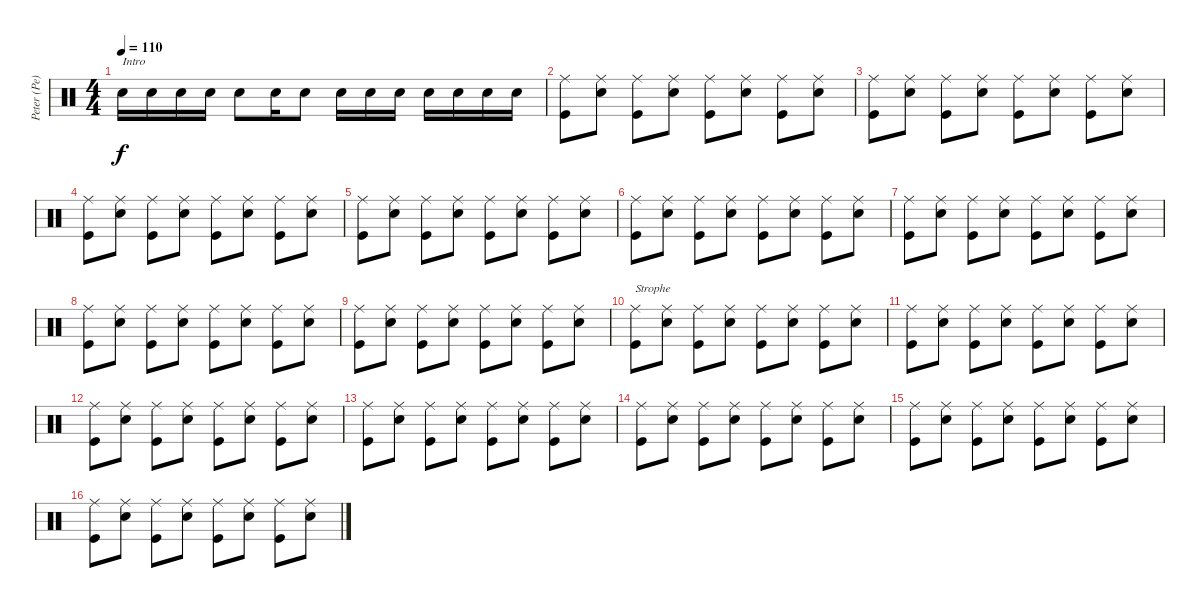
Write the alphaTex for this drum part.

\track ("Peter (Pe) Schorowsky" "Peter (Pe)") {instrument percussion}
\staff {score}
\articulation defaults
\ts (4 4)
\tempo 110
\clef neutral
\ks c "Snare (hit) 2".16{txt "Intro" dy f} "Snare (hit) 2".16 "Snare (hit) 2".16 "Snare (hit) 2".16 "Snare (hit) 2".8 "Snare (hit) 2".16 "Snare (hit) 2".8 "Snare (hit) 2".16 "Snare (hit) 2".16 "Snare (hit) 2".16 "Snare (hit) 2".16 "Snare (hit) 2".16 "Snare (hit) 2".16 "Snare (hit) 2".16
|
("Ride (middle)" "Kick (hit)").8 ("Ride (middle)" "Snare (hit) 2").8 ("Ride (middle)" "Kick (hit)").8 ("Ride (middle)" "Snare (hit) 2").8 ("Ride (middle)" "Kick (hit)").8 ("Ride (middle)" "Snare (hit) 2").8 ("Ride (middle)" "Kick (hit)").8 ("Ride (middle)" "Snare (hit) 2").8 |
("Ride (middle)" "Kick (hit)").8 ("Ride (middle)" "Snare (hit) 2").8 ("Ride (middle)" "Kick (hit)").8 ("Ride (middle)" "Snare (hit) 2").8 ("Ride (middle)" "Kick (hit)").8 ("Ride (middle)" "Snare (hit) 2").8 ("Ride (middle)" "Kick (hit)").8 ("Ride (middle)" "Snare (hit) 2").8 |
("Ride (middle)" "Kick (hit)").8 ("Ride (middle)" "Snare (hit) 2").8 ("Ride (middle)" "Kick (hit)").8 ("Ride (middle)" "Snare (hit) 2").8 ("Ride (middle)" "Kick (hit)").8 ("Ride (middle)" "Snare (hit) 2").8 ("Ride (middle)" "Kick (hit)").8 ("Ride (middle)" "Snare (hit) 2").8 |
("Ride (middle)" "Kick (hit)").8 ("Ride (middle)" "Snare (hit) 2").8 ("Ride (middle)" "Kick (hit)").8 ("Ride (middle)" "Snare (hit) 2").8 ("Ride (middle)" "Kick (hit)").8 ("Ride (middle)" "Snare (hit) 2").8 ("Ride (middle)" "Kick (hit)").8 ("Ride (middle)" "Snare (hit) 2").8 |
("Ride (middle)" "Kick (hit)").8 ("Ride (middle)" "Snare (hit) 2").8 ("Ride (middle)" "Kick (hit)").8 ("Ride (middle)" "Snare (hit) 2").8 ("Ride (middle)" "Kick (hit)").8 ("Ride (middle)" "Snare (hit) 2").8 ("Ride (middle)" "Kick (hit)").8 ("Ride (middle)" "Snare (hit) 2").8 |
("Ride (middle)" "Kick (hit)").8 ("Ride (middle)" "Snare (hit) 2").8 ("Ride (middle)" "Kick (hit)").8 ("Ride (middle)" "Snare (hit) 2").8 ("Ride (middle)" "Kick (hit)").8 ("Ride (middle)" "Snare (hit) 2").8 ("Ride (middle)" "Kick (hit)").8 ("Ride (middle)" "Snare (hit) 2").8 |
("Ride (middle)" "Kick (hit)").8 ("Ride (middle)" "Snare (hit) 2").8 ("Ride (middle)" "Kick (hit)").8 ("Ride (middle)" "Snare (hit) 2").8 ("Ride (middle)" "Kick (hit)").8 ("Ride (middle)" "Snare (hit) 2").8 ("Ride (middle)" "Kick (hit)").8 ("Ride (middle)" "Snare (hit) 2").8 |
("Ride (middle)" "Kick (hit)").8 ("Ride (middle)" "Snare (hit) 2").8 ("Ride (middle)" "Kick (hit)").8 ("Ride (middle)" "Snare (hit) 2").8 ("Ride (middle)" "Kick (hit)").8 ("Ride (middle)" "Snare (hit) 2").8 ("Ride (middle)" "Kick (hit)").8 ("Ride (middle)" "Snare (hit) 2").8 |
("Ride (middle)" "Kick (hit)").8{txt "Strophe"} ("Ride (middle)" "Snare (hit) 2").8 ("Ride (middle)" "Kick (hit)").8 ("Ride (middle)" "Snare (hit) 2").8 ("Ride (middle)" "Kick (hit)").8 ("Ride (middle)" "Snare (hit) 2").8 ("Ride (middle)" "Kick (hit)").8 ("Ride (middle)" "Snare (hit) 2").8 |
("Ride (middle)" "Kick (hit)").8 ("Ride (middle)" "Snare (hit) 2").8 ("Ride (middle)" "Kick (hit)").8 ("Ride (middle)" "Snare (hit) 2").8 ("Ride (middle)" "Kick (hit)").8 ("Ride (middle)" "Snare (hit) 2").8 ("Ride (middle)" "Kick (hit)").8 ("Ride (middle)" "Snare (hit) 2").8 |
("Ride (middle)" "Kick (hit)").8 ("Ride (middle)" "Snare (hit) 2").8 ("Ride (middle)" "Kick (hit)").8 ("Ride (middle)" "Snare (hit) 2").8 ("Ride (middle)" "Kick (hit)").8 ("Ride (middle)" "Snare (hit) 2").8 ("Ride (middle)" "Kick (hit)").8 ("Ride (middle)" "Snare (hit) 2").8 |
("Ride (middle)" "Kick (hit)").8 ("Ride (middle)" "Snare (hit) 2").8 ("Ride (middle)" "Kick (hit)").8 ("Ride (middle)" "Snare (hit) 2").8 ("Ride (middle)" "Kick (hit)").8 ("Ride (middle)" "Snare (hit) 2").8 ("Ride (middle)" "Kick (hit)").8 ("Ride (middle)" "Snare (hit) 2").8 |
("Ride (middle)" "Kick (hit)").8 ("Ride (middle)" "Snare (hit) 2").8 ("Ride (middle)" "Kick (hit)").8 ("Ride (middle)" "Snare (hit) 2").8 ("Ride (middle)" "Kick (hit)").8 ("Ride (middle)" "Snare (hit) 2").8 ("Ride (middle)" "Kick (hit)").8 ("Ride (middle)" "Snare (hit) 2").8 |
("Ride (middle)" "Kick (hit)").8 ("Ride (middle)" "Snare (hit) 2").8 ("Ride (middle)" "Kick (hit)").8 ("Ride (middle)" "Snare (hit) 2").8 ("Ride (middle)" "Kick (hit)").8 ("Ride (middle)" "Snare (hit) 2").8 ("Ride (middle)" "Kick (hit)").8 ("Ride (middle)" "Snare (hit) 2").8 |
("Ride (middle)" "Kick (hit)").8 ("Ride (middle)" "Snare (hit) 2").8 ("Ride (middle)" "Kick (hit)").8 ("Ride (middle)" "Snare (hit) 2").8 ("Ride (middle)" "Kick (hit)").8 ("Ride (middle)" "Snare (hit) 2").8 ("Ride (middle)" "Kick (hit)").8 ("Ride (middle)" "Snare (hit) 2").8
